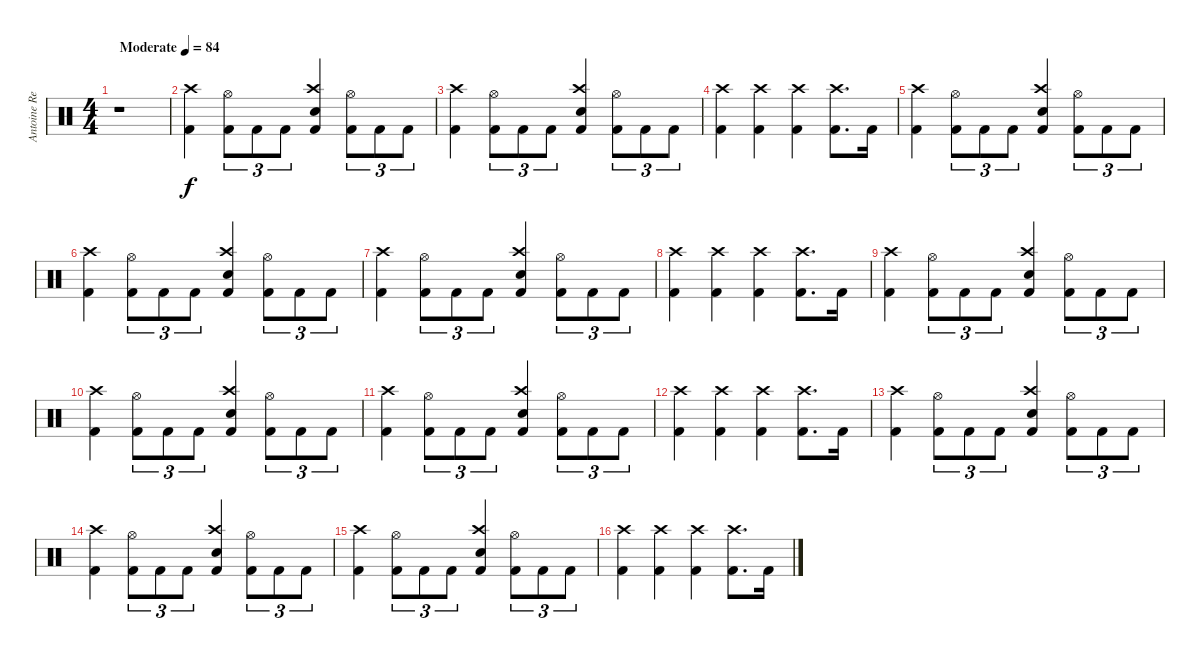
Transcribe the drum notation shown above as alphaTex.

\track ("Antoine Reuben" "Antoine Re") {instrument percussion}
\staff {score}
\articulation defaults
\ts (4 4)
\tempo (84 "Moderate")
\clef neutral
\ks c
r.1{dy f} |
("Kick (hit) 2" "Crash high (hit)").4 ("Kick (hit) 2" "Hi-Hat (open)").8{tu (3 2)} "Kick (hit) 2".8{tu (3 2)} "Kick (hit) 2".8{tu (3 2)} ("Kick (hit) 2" "Crash high (hit)" "Snare (hit) 2").4 ("Kick (hit) 2" "Hi-Hat (open)").8{tu (3 2)} "Kick (hit) 2".8{tu (3 2)} "Kick (hit) 2".8{tu (3 2)} |
("Kick (hit) 2" "Crash high (hit)").4 ("Kick (hit) 2" "Hi-Hat (open)").8{tu (3 2)} "Kick (hit) 2".8{tu (3 2)} "Kick (hit) 2".8{tu (3 2)} ("Kick (hit) 2" "Crash high (hit)" "Snare (hit) 2").4 ("Kick (hit) 2" "Hi-Hat (open)").8{tu (3 2)} "Kick (hit) 2".8{tu (3 2)} "Kick (hit) 2".8{tu (3 2)} |
("Kick (hit) 2" "Crash high (hit)").4 ("Kick (hit) 2" "Crash high (hit)").4 ("Kick (hit) 2" "Crash high (hit)").4 ("Kick (hit) 2" "Crash high (hit)").8{d} "Kick (hit) 2".16 |
("Kick (hit) 2" "Crash high (hit)").4 ("Kick (hit) 2" "Hi-Hat (open)").8{tu (3 2)} "Kick (hit) 2".8{tu (3 2)} "Kick (hit) 2".8{tu (3 2)} ("Kick (hit) 2" "Crash high (hit)" "Snare (hit) 2").4 ("Kick (hit) 2" "Hi-Hat (open)").8{tu (3 2)} "Kick (hit) 2".8{tu (3 2)} "Kick (hit) 2".8{tu (3 2)} |
("Kick (hit) 2" "Crash high (hit)").4 ("Kick (hit) 2" "Hi-Hat (open)").8{tu (3 2)} "Kick (hit) 2".8{tu (3 2)} "Kick (hit) 2".8{tu (3 2)} ("Kick (hit) 2" "Crash high (hit)" "Snare (hit) 2").4 ("Kick (hit) 2" "Hi-Hat (open)").8{tu (3 2)} "Kick (hit) 2".8{tu (3 2)} "Kick (hit) 2".8{tu (3 2)} |
("Kick (hit) 2" "Crash high (hit)").4 ("Kick (hit) 2" "Hi-Hat (open)").8{tu (3 2)} "Kick (hit) 2".8{tu (3 2)} "Kick (hit) 2".8{tu (3 2)} ("Kick (hit) 2" "Crash high (hit)" "Snare (hit) 2").4 ("Kick (hit) 2" "Hi-Hat (open)").8{tu (3 2)} "Kick (hit) 2".8{tu (3 2)} "Kick (hit) 2".8{tu (3 2)} |
("Kick (hit) 2" "Crash high (hit)").4 ("Kick (hit) 2" "Crash high (hit)").4 ("Kick (hit) 2" "Crash high (hit)").4 ("Kick (hit) 2" "Crash high (hit)").8{d} "Kick (hit) 2".16 |
("Kick (hit) 2" "Crash high (hit)").4 ("Kick (hit) 2" "Hi-Hat (open)").8{tu (3 2)} "Kick (hit) 2".8{tu (3 2)} "Kick (hit) 2".8{tu (3 2)} ("Kick (hit) 2" "Crash high (hit)" "Snare (hit) 2").4 ("Kick (hit) 2" "Hi-Hat (open)").8{tu (3 2)} "Kick (hit) 2".8{tu (3 2)} "Kick (hit) 2".8{tu (3 2)} |
("Kick (hit) 2" "Crash high (hit)").4 ("Kick (hit) 2" "Hi-Hat (open)").8{tu (3 2)} "Kick (hit) 2".8{tu (3 2)} "Kick (hit) 2".8{tu (3 2)} ("Kick (hit) 2" "Crash high (hit)" "Snare (hit) 2").4 ("Kick (hit) 2" "Hi-Hat (open)").8{tu (3 2)} "Kick (hit) 2".8{tu (3 2)} "Kick (hit) 2".8{tu (3 2)} |
("Kick (hit) 2" "Crash high (hit)").4 ("Kick (hit) 2" "Hi-Hat (open)").8{tu (3 2)} "Kick (hit) 2".8{tu (3 2)} "Kick (hit) 2".8{tu (3 2)} ("Kick (hit) 2" "Crash high (hit)" "Snare (hit) 2").4 ("Kick (hit) 2" "Hi-Hat (open)").8{tu (3 2)} "Kick (hit) 2".8{tu (3 2)} "Kick (hit) 2".8{tu (3 2)} |
("Kick (hit) 2" "Crash high (hit)").4 ("Kick (hit) 2" "Crash high (hit)").4 ("Kick (hit) 2" "Crash high (hit)").4 ("Kick (hit) 2" "Crash high (hit)").8{d} "Kick (hit) 2".16 |
("Kick (hit) 2" "Crash high (hit)").4 ("Kick (hit) 2" "Hi-Hat (open)").8{tu (3 2)} "Kick (hit) 2".8{tu (3 2)} "Kick (hit) 2".8{tu (3 2)} ("Kick (hit) 2" "Crash high (hit)" "Snare (hit) 2").4 ("Kick (hit) 2" "Hi-Hat (open)").8{tu (3 2)} "Kick (hit) 2".8{tu (3 2)} "Kick (hit) 2".8{tu (3 2)} |
("Kick (hit) 2" "Crash high (hit)").4 ("Kick (hit) 2" "Hi-Hat (open)").8{tu (3 2)} "Kick (hit) 2".8{tu (3 2)} "Kick (hit) 2".8{tu (3 2)} ("Kick (hit) 2" "Crash high (hit)" "Snare (hit) 2").4 ("Kick (hit) 2" "Hi-Hat (open)").8{tu (3 2)} "Kick (hit) 2".8{tu (3 2)} "Kick (hit) 2".8{tu (3 2)} |
("Kick (hit) 2" "Crash high (hit)").4 ("Kick (hit) 2" "Hi-Hat (open)").8{tu (3 2)} "Kick (hit) 2".8{tu (3 2)} "Kick (hit) 2".8{tu (3 2)} ("Kick (hit) 2" "Crash high (hit)" "Snare (hit) 2").4 ("Kick (hit) 2" "Hi-Hat (open)").8{tu (3 2)} "Kick (hit) 2".8{tu (3 2)} "Kick (hit) 2".8{tu (3 2)} |
("Kick (hit) 2" "Crash high (hit)").4 ("Kick (hit) 2" "Crash high (hit)").4 ("Kick (hit) 2" "Crash high (hit)").4 ("Kick (hit) 2" "Crash high (hit)").8{d} "Kick (hit) 2".16
